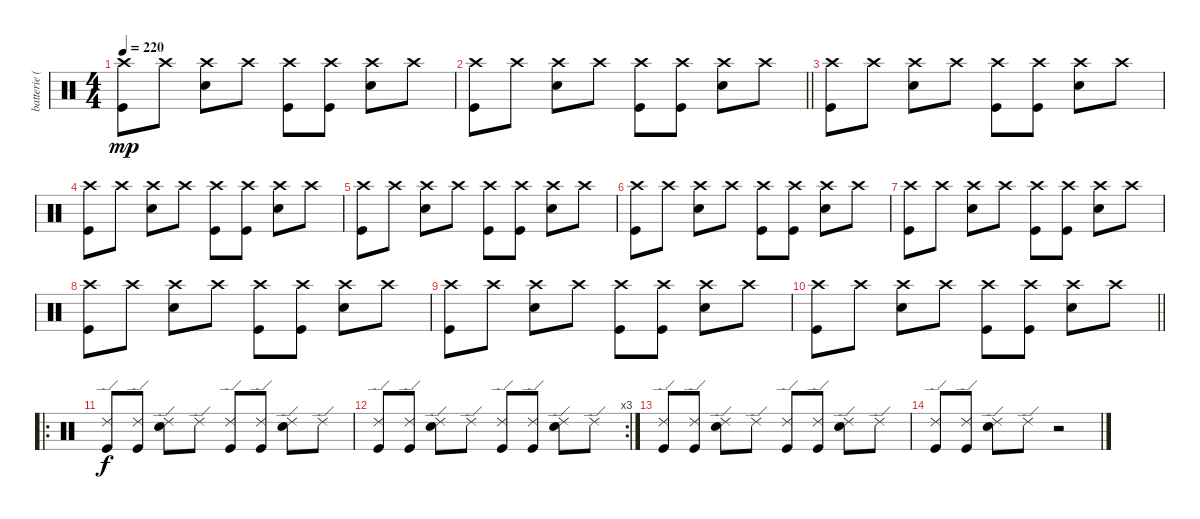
\track ("batterie ( Guillaume ) " "batterie (") {instrument percussion}
\staff {score}
\articulation defaults
\ts (4 4)
\tempo 220
\clef neutral
\ks c
("Crash high (hit)" "Kick (hit)").8{dy mp} "Crash high (hit)".8 ("Crash high (hit)" "Snare (hit) 2").8 "Crash high (hit)".8 ("Crash high (hit)" "Kick (hit)").8 ("Crash high (hit)" "Kick (hit)").8 ("Crash high (hit)" "Snare (hit) 2").8 "Crash high (hit)".8 |
\barLineRight lightlight
("Crash high (hit)" "Kick (hit)").8 "Crash high (hit)".8 ("Crash high (hit)" "Snare (hit) 2").8 "Crash high (hit)".8 ("Crash high (hit)" "Kick (hit)").8 ("Crash high (hit)" "Kick (hit)").8 ("Crash high (hit)" "Snare (hit) 2").8 "Crash high (hit)".8 |
("Crash high (hit)" "Kick (hit)").8 "Crash high (hit)".8 ("Crash high (hit)" "Snare (hit) 2").8 "Crash high (hit)".8 ("Crash high (hit)" "Kick (hit)").8 ("Crash high (hit)" "Kick (hit)").8 ("Crash high (hit)" "Snare (hit) 2").8 "Crash high (hit)".8 |
("Crash high (hit)" "Kick (hit)").8 "Crash high (hit)".8 ("Crash high (hit)" "Snare (hit) 2").8 "Crash high (hit)".8 ("Crash high (hit)" "Kick (hit)").8 ("Crash high (hit)" "Kick (hit)").8 ("Crash high (hit)" "Snare (hit) 2").8 "Crash high (hit)".8 |
("Crash high (hit)" "Kick (hit)").8 "Crash high (hit)".8 ("Crash high (hit)" "Snare (hit) 2").8 "Crash high (hit)".8 ("Crash high (hit)" "Kick (hit)").8 ("Crash high (hit)" "Kick (hit)").8 ("Crash high (hit)" "Snare (hit) 2").8 "Crash high (hit)".8 |
("Crash high (hit)" "Kick (hit)").8 "Crash high (hit)".8 ("Crash high (hit)" "Snare (hit) 2").8 "Crash high (hit)".8 ("Crash high (hit)" "Kick (hit)").8 ("Crash high (hit)" "Kick (hit)").8 ("Crash high (hit)" "Snare (hit) 2").8 "Crash high (hit)".8 |
("Crash high (hit)" "Kick (hit)").8 "Crash high (hit)".8 ("Crash high (hit)" "Snare (hit) 2").8 "Crash high (hit)".8 ("Crash high (hit)" "Kick (hit)").8 ("Crash high (hit)" "Kick (hit)").8 ("Crash high (hit)" "Snare (hit) 2").8 "Crash high (hit)".8 |
("Crash high (hit)" "Kick (hit)").8 "Crash high (hit)".8 ("Crash high (hit)" "Snare (hit) 2").8 "Crash high (hit)".8 ("Crash high (hit)" "Kick (hit)").8 ("Crash high (hit)" "Kick (hit)").8 ("Crash high (hit)" "Snare (hit) 2").8 "Crash high (hit)".8 |
("Crash high (hit)" "Kick (hit)").8 "Crash high (hit)".8 ("Crash high (hit)" "Snare (hit) 2").8 "Crash high (hit)".8 ("Crash high (hit)" "Kick (hit)").8 ("Crash high (hit)" "Kick (hit)").8 ("Crash high (hit)" "Snare (hit) 2").8 "Crash high (hit)".8 |
\barLineRight lightlight
("Crash high (hit)" "Kick (hit)").8 "Crash high (hit)".8 ("Crash high (hit)" "Snare (hit) 2").8 "Crash high (hit)".8 ("Crash high (hit)" "Kick (hit)").8 ("Crash high (hit)" "Kick (hit)").8 ("Crash high (hit)" "Snare (hit) 2").8 "Crash high (hit)".8 |
\ro
("Ride (edge) 2" "Kick (hit)").8{dy f} ("Ride (edge) 2" "Kick (hit)").8 ("Ride (edge) 2" "Snare (hit) 2").8 "Ride (edge) 2".8 ("Ride (edge) 2" "Kick (hit)").8 ("Ride (edge) 2" "Kick (hit)").8 ("Ride (edge) 2" "Snare (hit) 2").8 "Ride (edge) 2".8 |
\rc 3
("Ride (edge) 2" "Kick (hit)").8 ("Ride (edge) 2" "Kick (hit)").8 ("Ride (edge) 2" "Snare (hit) 2").8 "Ride (edge) 2".8 ("Ride (edge) 2" "Kick (hit)").8 ("Ride (edge) 2" "Kick (hit)").8 ("Ride (edge) 2" "Snare (hit) 2").8 "Ride (edge) 2".8 |
("Ride (edge) 2" "Kick (hit)").8 ("Ride (edge) 2" "Kick (hit)").8 ("Ride (edge) 2" "Snare (hit) 2").8 "Ride (edge) 2".8 ("Ride (edge) 2" "Kick (hit)").8 ("Ride (edge) 2" "Kick (hit)").8 ("Ride (edge) 2" "Snare (hit) 2").8 "Ride (edge) 2".8 |
("Ride (edge) 2" "Kick (hit)").8 ("Ride (edge) 2" "Kick (hit)").8 ("Ride (edge) 2" "Snare (hit) 2").8 "Ride (edge) 2".8 r.2
